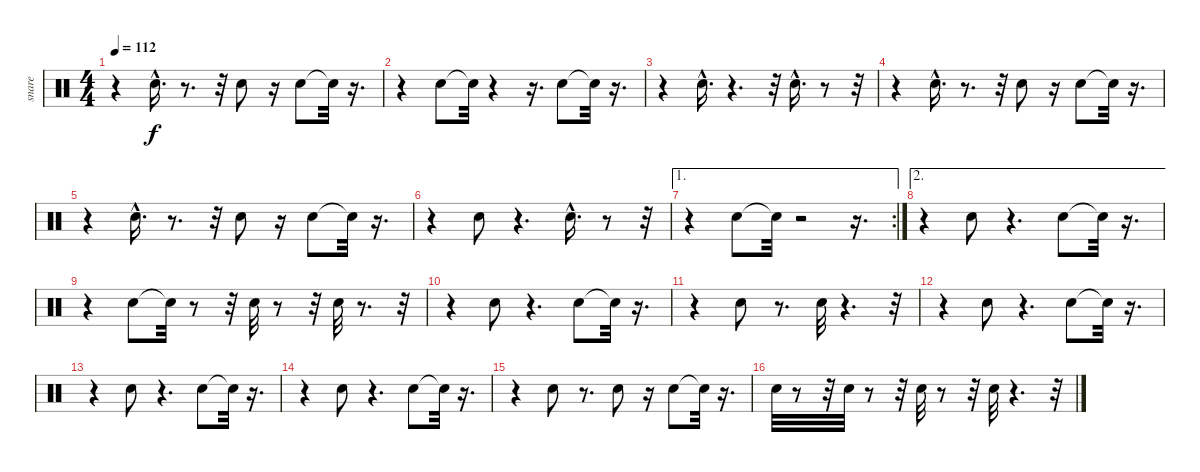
\track ("snare" "snare") {instrument percussion}
\staff {score}
\articulation defaults
\ts (4 4)
\tempo 112
\clef neutral
\ks c
r.4{dy f} "Snare (hit) 2"{hac}.16{d} r.8{d} r.32 "Snare (hit) 2".8 r.16 "Snare (hit) 2".8 "Snare (hit)"{t}.32 r.16{d} |
r.4 "Snare (hit) 2".8 "Snare (hit)"{t}.32 r.4 r.16{d} "Snare (hit) 2".8 "Snare (hit)"{t}.32 r.16{d} |
r.4 "Snare (hit) 2"{hac}.16{d} r.4{d} r.32 "Snare (hit) 2"{hac}.16{d} r.8 r.32 |
r.4 "Snare (hit) 2"{hac}.16{d} r.8{d} r.32 "Snare (hit) 2".8 r.16 "Snare (hit) 2".8 "Snare (hit)"{t}.32 r.16{d} |
r.4 "Snare (hit) 2"{hac}.16{d} r.8{d} r.32 "Snare (hit) 2".8 r.16 "Snare (hit) 2".8 "Snare (hit)"{t}.32 r.16{d} |
r.4 "Snare (hit) 2".8 r.4{d} "Snare (hit) 2"{hac}.16{d} r.8 r.32 |
\ae 1
\rc 2
r.4 "Snare (hit) 2".8 "Snare (hit)"{t}.32 r.2 r.16{d} |
\ae 2
r.4 "Snare (hit) 2".8 r.4{d} "Snare (hit) 2".8 "Snare (hit)"{t}.32 r.16{d} |
r.4 "Snare (hit) 2".8 "Snare (hit)"{t}.32 r.8 r.32 "Snare (hit) 2".32 r.8 r.32 "Snare (hit) 2".32 r.8{d} r.32 |
r.4 "Snare (hit) 2".8 r.4{d} "Snare (hit) 2".8 "Snare (hit)"{t}.32 r.16{d} |
r.4 "Snare (hit) 2".8 r.8{d} "Snare (hit) 2".32 r.4{d} r.32 |
r.4 "Snare (hit) 2".8 r.4{d} "Snare (hit) 2".8 "Snare (hit)"{t}.32 r.16{d} |
r.4 "Snare (hit) 2".8 r.4{d} "Snare (hit) 2".8 "Snare (hit)"{t}.32 r.16{d} |
r.4 "Snare (hit) 2".8 r.4{d} "Snare (hit) 2".8 "Snare (hit)"{t}.32 r.16{d} |
r.4 "Snare (hit) 2".8 r.8{d} "Snare (hit) 2".8 r.16 "Snare (hit) 2".8 "Snare (hit)"{t}.32 r.16{d} |
"Snare (hit) 2".32 r.8 r.32 "Snare (hit) 2".32 r.8 r.32 "Snare (hit) 2".32 r.8 r.32 "Snare (hit) 2".32 r.4{d} r.32
